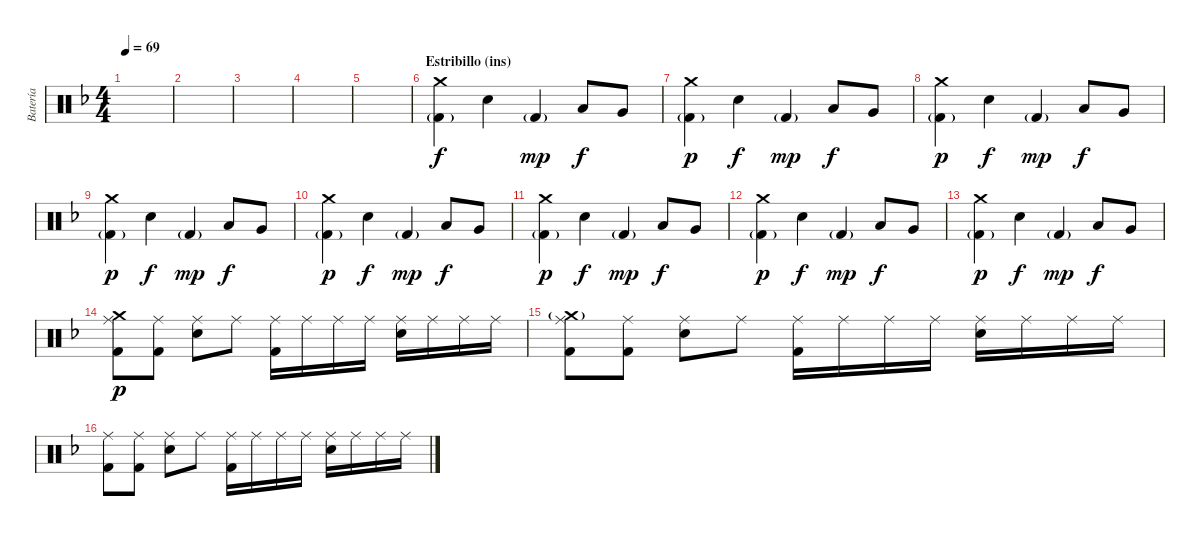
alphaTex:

\track ("Batería" "Batería") {instrument percussion}
\staff {score}
\articulation defaults
\ts (4 4)
\tempo 69
\clef neutral
\ks dminor
|
|
|
|
|
\section ("" "Estribillo (ins)")
("Crash medium (hit)" "Kick (hit) 2"{g}).4 "Electric Snare (hit)".4{dy f} "Kick (hit) 2"{g}.4{dy mp} "Low Floor Tom (hit)".8{dy f} "Very Low Tom (hit)".8 |
("Crash medium (hit)" "Kick (hit) 2"{g}).4{dy p} "Electric Snare (hit)".4{dy f} "Kick (hit) 2"{g}.4{dy mp} "Low Floor Tom (hit)".8{dy f} "Very Low Tom (hit)".8 |
("Crash medium (hit)" "Kick (hit) 2"{g}).4{dy p} "Electric Snare (hit)".4{dy f} "Kick (hit) 2"{g}.4{dy mp} "Low Floor Tom (hit)".8{dy f} "Very Low Tom (hit)".8 |
("Crash medium (hit)" "Kick (hit) 2"{g}).4{dy p} "Electric Snare (hit)".4{dy f} "Kick (hit) 2"{g}.4{dy mp} "Low Floor Tom (hit)".8{dy f} "Very Low Tom (hit)".8 |
("Crash medium (hit)" "Kick (hit) 2"{g}).4{dy p} "Electric Snare (hit)".4{dy f} "Kick (hit) 2"{g}.4{dy mp} "Low Floor Tom (hit)".8{dy f} "Very Low Tom (hit)".8 |
("Crash medium (hit)" "Kick (hit) 2"{g}).4{dy p} "Electric Snare (hit)".4{dy f} "Kick (hit) 2"{g}.4{dy mp} "Low Floor Tom (hit)".8{dy f} "Very Low Tom (hit)".8 |
("Crash medium (hit)" "Kick (hit) 2"{g}).4{dy p} "Electric Snare (hit)".4{dy f} "Kick (hit) 2"{g}.4{dy mp} "Low Floor Tom (hit)".8{dy f} "Very Low Tom (hit)".8 |
("Crash medium (hit)" "Kick (hit) 2"{g}).4{dy p} "Electric Snare (hit)".4{dy f} "Kick (hit) 2"{g}.4{dy mp} "Low Floor Tom (hit)".8{dy f} "Very Low Tom (hit)".8 |
("Crash medium (hit)" "Kick (hit) 2" "Ride (middle)").8{dy p} ("Kick (hit) 2" "Ride (middle)").8 ("Electric Snare (hit)" "Ride (middle)").8 "Ride (middle)".8 ("Kick (hit) 2" "Ride (middle)").16 "Ride (middle)".16 "Ride (middle)".16 "Ride (middle)".16 ("Electric Snare (hit)" "Ride (middle)").16 "Ride (middle)".16 "Ride (middle)".16 "Ride (middle)".16 |
("Crash medium (hit)"{g} "Kick (hit) 2" "Ride (middle)").8 ("Kick (hit) 2" "Ride (middle)").8 ("Electric Snare (hit)" "Ride (middle)").8 "Ride (middle)".8 ("Kick (hit) 2" "Ride (middle)").16 "Ride (middle)".16 "Ride (middle)".16 "Ride (middle)".16 ("Electric Snare (hit)" "Ride (middle)").16 "Ride (middle)".16 "Ride (middle)".16 "Ride (middle)".16 |
("Kick (hit) 2" "Ride (middle)").8 ("Kick (hit) 2" "Ride (middle)").8 ("Electric Snare (hit)" "Ride (middle)").8 "Ride (middle)".8 ("Kick (hit) 2" "Ride (middle)").16 "Ride (middle)".16 "Ride (middle)".16 "Ride (middle)".16 ("Electric Snare (hit)" "Ride (middle)").16 "Ride (middle)".16 "Ride (middle)".16 "Ride (middle)".16
